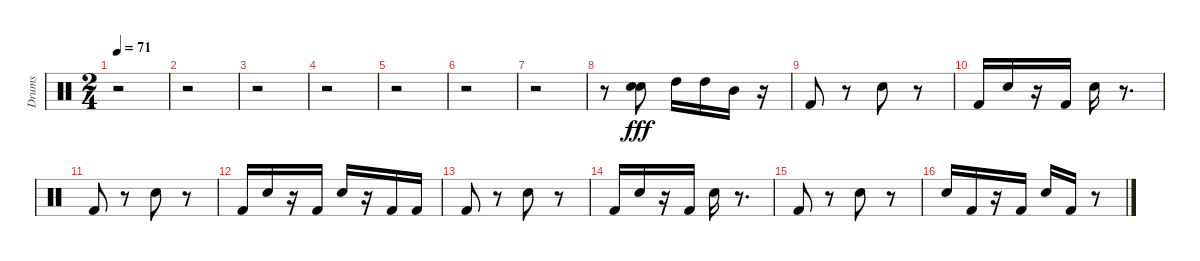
\track ("Drums" "Drums") {instrument percussion}
\staff {score}
\articulation defaults
\ts (2 4)
\tempo 71
\clef neutral
\ks c
r.2{dy fff} |
r.2 |
r.2 |
r.2 |
r.2 |
r.2 |
r.2 |
r.8 ("Electric Snare (hit)" "Electric Snare (hit)").8 "High Tom (hit)".16 "High Tom (hit)".16 "Mid Tom (hit)".16 r.16 |
"Kick (hit) 2".8 r.8 "Snare (hit) 2".8 r.8 |
"Kick (hit) 2".16 "Snare (hit) 2".16 r.16 "Kick (hit) 2".16 "Snare (hit) 2".16 r.8{d} |
"Kick (hit) 2".8 r.8 "Snare (hit) 2".8 r.8 |
"Kick (hit) 2".16 "Snare (hit) 2".16 r.16 "Kick (hit) 2".16 "Snare (hit) 2".16 r.16 "Kick (hit) 2".16 "Kick (hit) 2".16 |
"Kick (hit) 2".8 r.8 "Snare (hit) 2".8 r.8 |
"Kick (hit) 2".16 "Snare (hit) 2".16 r.16 "Kick (hit) 2".16 "Snare (hit) 2".16 r.8{d} |
"Kick (hit) 2".8 r.8 "Snare (hit) 2".8 r.8 |
"Electric Snare (hit)".16 "Kick (hit) 2".16 r.16 "Kick (hit) 2".16 "Snare (hit) 2".16 "Kick (hit) 2".16 r.8
